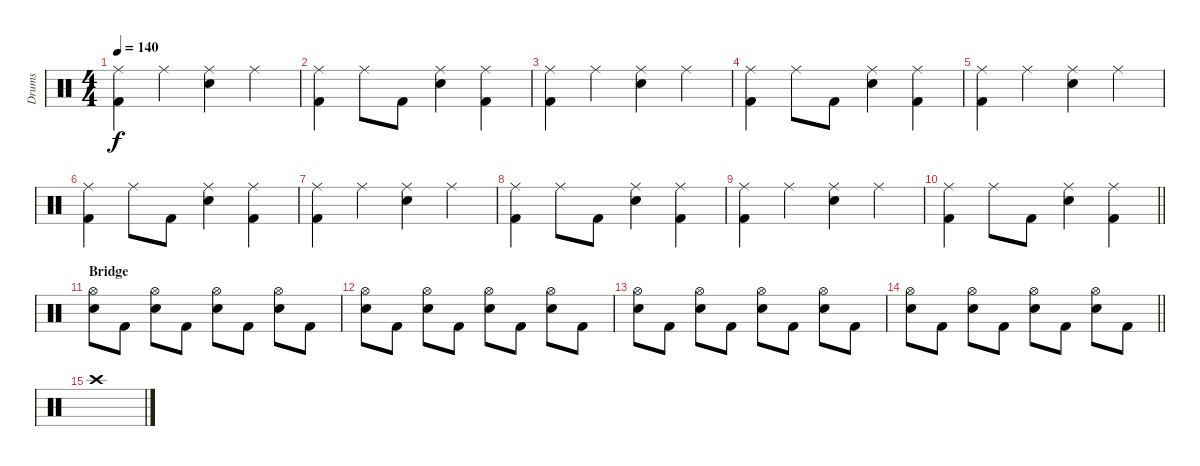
\track ("Drums" "Drums") {instrument percussion}
\staff {score}
\articulation defaults
\ts (4 4)
\tempo 140
\clef neutral
\ks c
("Ride (middle)" "Kick (hit) 2").4{dy f} "Ride (middle)".4 ("Snare (hit) 2" "Ride (middle)").4 "Ride (middle)".4 |
("Kick (hit) 2" "Ride (middle)").4 "Ride (middle)".8 "Kick (hit) 2".8 ("Ride (middle)" "Snare (hit) 2").4 ("Ride (middle)" "Kick (hit) 2").4 |
("Ride (middle)" "Kick (hit) 2").4 "Ride (middle)".4 ("Snare (hit) 2" "Ride (middle)").4 "Ride (middle)".4 |
("Kick (hit) 2" "Ride (middle)").4 "Ride (middle)".8 "Kick (hit) 2".8 ("Ride (middle)" "Snare (hit) 2").4 ("Ride (middle)" "Kick (hit) 2").4 |
("Ride (middle)" "Kick (hit) 2").4 "Ride (middle)".4 ("Snare (hit) 2" "Ride (middle)").4 "Ride (middle)".4 |
("Kick (hit) 2" "Ride (middle)").4 "Ride (middle)".8 "Kick (hit) 2".8 ("Ride (middle)" "Snare (hit) 2").4 ("Ride (middle)" "Kick (hit) 2").4 |
("Ride (middle)" "Kick (hit) 2").4 "Ride (middle)".4 ("Snare (hit) 2" "Ride (middle)").4 "Ride (middle)".4 |
("Kick (hit) 2" "Ride (middle)").4 "Ride (middle)".8 "Kick (hit) 2".8 ("Ride (middle)" "Snare (hit) 2").4 ("Ride (middle)" "Kick (hit) 2").4 |
("Ride (middle)" "Kick (hit) 2").4 "Ride (middle)".4 ("Snare (hit) 2" "Ride (middle)").4 "Ride (middle)".4 |
\barLineRight lightlight
("Kick (hit) 2" "Ride (middle)").4 "Ride (middle)".8 "Kick (hit) 2".8 ("Ride (middle)" "Snare (hit) 2").4 ("Ride (middle)" "Kick (hit) 2").4 |
\section ("" "Bridge")
("Snare (hit) 2" "Hi-Hat (open)").8 "Kick (hit) 2".8 ("Snare (hit) 2" "Hi-Hat (open)").8 "Kick (hit) 2".8 ("Snare (hit) 2" "Hi-Hat (open)").8 "Kick (hit) 2".8 ("Snare (hit) 2" "Hi-Hat (open)").8 "Kick (hit) 2".8 |
("Snare (hit) 2" "Hi-Hat (open)").8 "Kick (hit) 2".8 ("Snare (hit) 2" "Hi-Hat (open)").8 "Kick (hit) 2".8 ("Snare (hit) 2" "Hi-Hat (open)").8 "Kick (hit) 2".8 ("Snare (hit) 2" "Hi-Hat (open)").8 "Kick (hit) 2".8 |
("Snare (hit) 2" "Hi-Hat (open)").8 "Kick (hit) 2".8 ("Snare (hit) 2" "Hi-Hat (open)").8 "Kick (hit) 2".8 ("Snare (hit) 2" "Hi-Hat (open)").8 "Kick (hit) 2".8 ("Snare (hit) 2" "Hi-Hat (open)").8 "Kick (hit) 2".8 |
\barLineRight lightlight
("Snare (hit) 2" "Hi-Hat (open)").8 "Kick (hit) 2".8 ("Snare (hit) 2" "Hi-Hat (open)").8 "Kick (hit) 2".8 ("Snare (hit) 2" "Hi-Hat (open)").8 "Kick (hit) 2".8 ("Snare (hit) 2" "Hi-Hat (open)").8 "Kick (hit) 2".8 |
"Crash high (hit)".1
